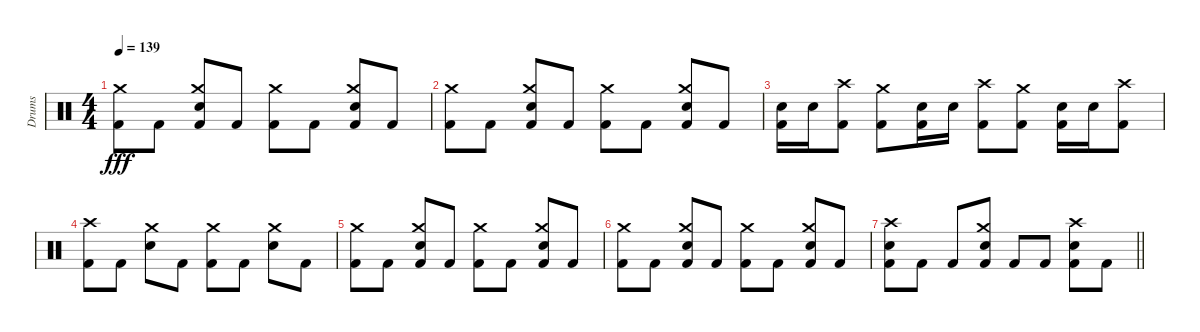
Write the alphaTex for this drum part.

\track ("Drums" "Drums") {instrument percussion}
\staff {score}
\articulation defaults
\ts (4 4)
\tempo 139
\clef neutral
\ks c
("Kick (hit) 2" "Crash medium (hit)").8{dy fff} "Kick (hit) 2".8 ("Kick (hit) 2" "Electric Snare (hit)" "Crash medium (hit)").8 "Kick (hit) 2".8 ("Kick (hit) 2" "Crash medium (hit)").8 "Kick (hit) 2".8 ("Kick (hit) 2" "Electric Snare (hit)" "Crash medium (hit)").8 "Kick (hit) 2".8 |
("Kick (hit) 2" "Crash medium (hit)").8 "Kick (hit) 2".8 ("Kick (hit) 2" "Electric Snare (hit)" "Crash medium (hit)").8 "Kick (hit) 2".8 ("Kick (hit) 2" "Crash medium (hit)").8 "Kick (hit) 2".8 ("Kick (hit) 2" "Electric Snare (hit)" "Crash medium (hit)").8 "Kick (hit) 2".8 |
("Kick (hit) 2" "Electric Snare (hit)").16 "Electric Snare (hit)".16 ("Kick (hit) 2" "Crash high (hit)").8 ("Kick (hit) 2" "Crash medium (hit)").8 ("Kick (hit) 2" "Electric Snare (hit)").16 "Electric Snare (hit)".16 ("Kick (hit) 2" "Crash high (hit)").8 ("Kick (hit) 2" "Crash medium (hit)").8 ("Kick (hit) 2" "Electric Snare (hit)").16 "Electric Snare (hit)".16 ("Kick (hit) 2" "Crash high (hit)").8 |
("Kick (hit) 2" "Crash high (hit)").8{volume 0} "Kick (hit) 2".8 ("Electric Snare (hit)" "Crash medium (hit)").8 "Kick (hit) 2".8 ("Kick (hit) 2" "Crash medium (hit)").8 "Kick (hit) 2".8 ("Electric Snare (hit)" "Crash medium (hit)").8 "Kick (hit) 2".8 |
("Kick (hit) 2" "Crash medium (hit)").8 "Kick (hit) 2".8 ("Kick (hit) 2" "Electric Snare (hit)" "Crash medium (hit)").8 "Kick (hit) 2".8 ("Kick (hit) 2" "Crash medium (hit)").8 "Kick (hit) 2".8 ("Kick (hit) 2" "Electric Snare (hit)" "Crash medium (hit)").8 "Kick (hit) 2".8 |
("Kick (hit) 2" "Crash medium (hit)").8 "Kick (hit) 2".8 ("Kick (hit) 2" "Electric Snare (hit)" "Crash medium (hit)").8 "Kick (hit) 2".8 ("Kick (hit) 2" "Crash medium (hit)").8 "Kick (hit) 2".8 ("Kick (hit) 2" "Electric Snare (hit)" "Crash medium (hit)").8 "Kick (hit) 2".8 |
\barLineRight lightlight
("Kick (hit) 2" "Electric Snare (hit)" "Crash high (hit)").8 "Kick (hit) 2".8 "Kick (hit) 2".8 ("Kick (hit) 2" "Electric Snare (hit)" "Crash medium (hit)").8 "Kick (hit) 2".8 "Kick (hit) 2".8 ("Kick (hit) 2" "Electric Snare (hit)" "Crash high (hit)").8 "Kick (hit) 2".8
